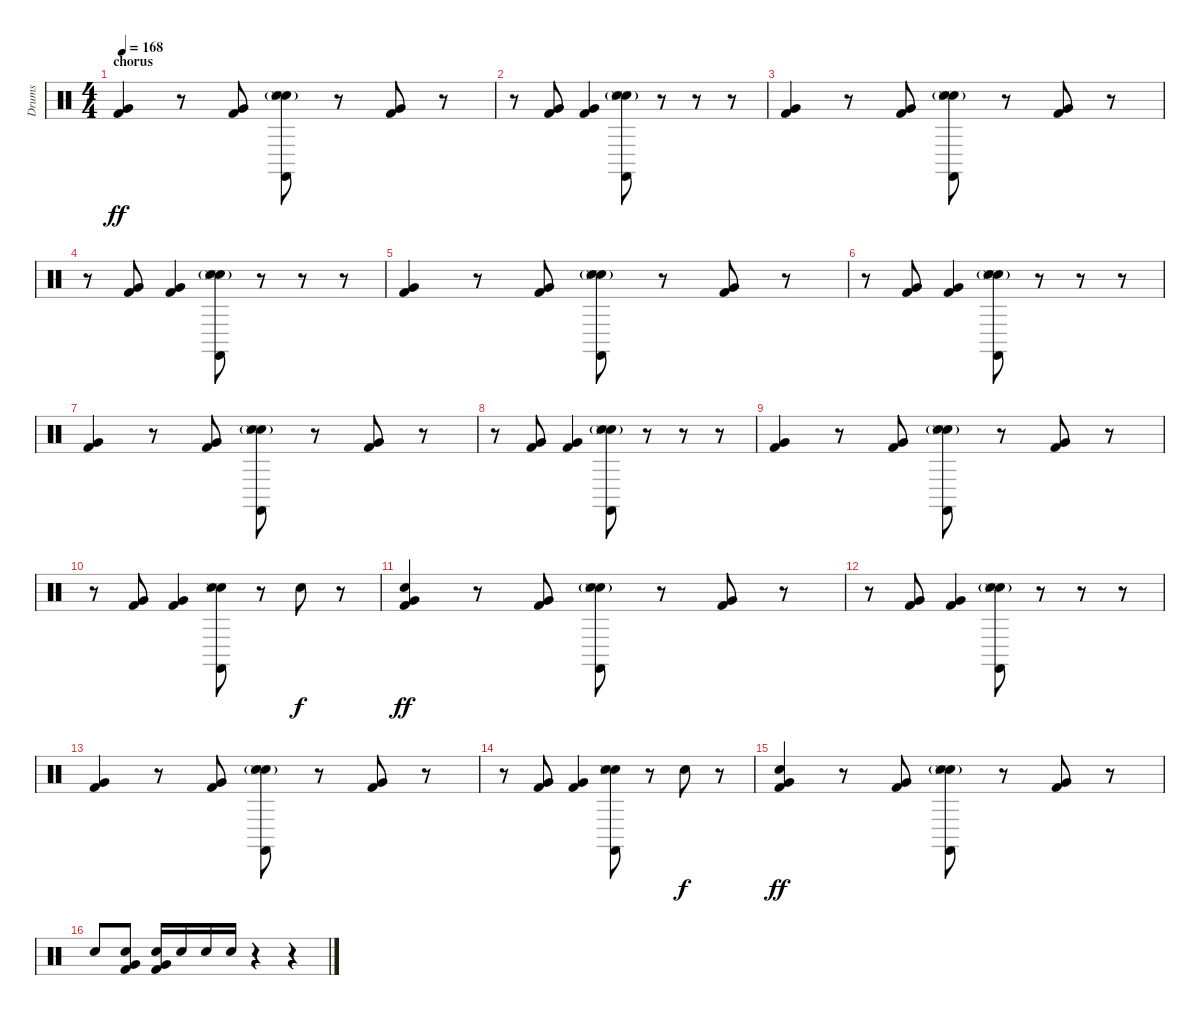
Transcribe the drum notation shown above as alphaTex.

\track ("Drums" "Drums") {instrument percussion}
\staff {score}
\articulation defaults
\ts (4 4)
\section ("" "chorus")
\tempo 168
\clef neutral
\ks c
("Very Low Tom (hit)" "Kick (hit) 2").4{dy ff} r.8 ("Very Low Tom (hit)" "Kick (hit) 2").8 ("Snare (hit) 2" "Hand Clap (hit)"{g} "Castanets (hit)" "Snare (side stick) 3").8 r.8 ("Very Low Tom (hit)" "Kick (hit) 2").8 r.8 |
r.8 ("Very Low Tom (hit)" "Kick (hit) 2").8 ("Very Low Tom (hit)" "Kick (hit) 2").4 ("Snare (hit) 2" "Hand Clap (hit)"{g} "Castanets (hit)" "Snare (side stick) 3").8 r.8 r.8 r.8 |
("Very Low Tom (hit)" "Kick (hit) 2").4 r.8 ("Very Low Tom (hit)" "Kick (hit) 2").8 ("Snare (hit) 2" "Hand Clap (hit)"{g} "Castanets (hit)" "Snare (side stick) 3").8 r.8 ("Very Low Tom (hit)" "Kick (hit) 2").8 r.8 |
r.8 ("Very Low Tom (hit)" "Kick (hit) 2").8 ("Very Low Tom (hit)" "Kick (hit) 2").4 ("Snare (hit) 2" "Hand Clap (hit)"{g} "Castanets (hit)" "Snare (side stick) 3").8 r.8 r.8 r.8 |
("Very Low Tom (hit)" "Kick (hit) 2").4 r.8 ("Very Low Tom (hit)" "Kick (hit) 2").8 ("Snare (hit) 2" "Hand Clap (hit)"{g} "Castanets (hit)" "Snare (side stick) 3").8 r.8 ("Very Low Tom (hit)" "Kick (hit) 2").8 r.8 |
r.8 ("Very Low Tom (hit)" "Kick (hit) 2").8 ("Very Low Tom (hit)" "Kick (hit) 2").4 ("Snare (hit) 2" "Hand Clap (hit)"{g} "Castanets (hit)" "Snare (side stick) 3").8 r.8 r.8 r.8 |
("Very Low Tom (hit)" "Kick (hit) 2").4 r.8 ("Very Low Tom (hit)" "Kick (hit) 2").8 ("Snare (hit) 2" "Hand Clap (hit)"{g} "Castanets (hit)" "Snare (side stick) 3").8 r.8 ("Very Low Tom (hit)" "Kick (hit) 2").8 r.8 |
r.8 ("Very Low Tom (hit)" "Kick (hit) 2").8 ("Very Low Tom (hit)" "Kick (hit) 2").4 ("Snare (hit) 2" "Hand Clap (hit)"{g} "Castanets (hit)" "Snare (side stick) 3").8 r.8 r.8 r.8 |
("Very Low Tom (hit)" "Kick (hit) 2").4 r.8 ("Very Low Tom (hit)" "Kick (hit) 2").8 ("Snare (hit) 2" "Hand Clap (hit)"{g} "Castanets (hit)" "Snare (side stick) 3").8 r.8 ("Very Low Tom (hit)" "Kick (hit) 2").8 r.8 |
r.8 ("Very Low Tom (hit)" "Kick (hit) 2").8 ("Very Low Tom (hit)" "Kick (hit) 2").4 ("Hand Clap (hit)" "Snare (hit) 2" "Castanets (hit)" "Snare (side stick) 3").8 r.8 "Hand Clap (hit)".8{dy f} r.8 |
("Hand Clap (hit)" "Very Low Tom (hit)" "Kick (hit) 2").4{dy ff} r.8 ("Very Low Tom (hit)" "Kick (hit) 2").8 ("Snare (hit) 2" "Hand Clap (hit)"{g} "Castanets (hit)" "Snare (side stick) 3").8 r.8 ("Very Low Tom (hit)" "Kick (hit) 2").8 r.8 |
r.8 ("Very Low Tom (hit)" "Kick (hit) 2").8 ("Very Low Tom (hit)" "Kick (hit) 2").4 ("Snare (hit) 2" "Hand Clap (hit)"{g} "Castanets (hit)" "Snare (side stick) 3").8 r.8 r.8 r.8 |
("Very Low Tom (hit)" "Kick (hit) 2").4 r.8 ("Very Low Tom (hit)" "Kick (hit) 2").8 ("Snare (hit) 2" "Hand Clap (hit)"{g} "Castanets (hit)" "Snare (side stick) 3").8 r.8 ("Very Low Tom (hit)" "Kick (hit) 2").8 r.8 |
r.8 ("Very Low Tom (hit)" "Kick (hit) 2").8 ("Very Low Tom (hit)" "Kick (hit) 2").4 ("Hand Clap (hit)" "Snare (hit) 2" "Castanets (hit)" "Snare (side stick) 3").8 r.8 "Hand Clap (hit)".8{dy f} r.8 |
("Hand Clap (hit)" "Very Low Tom (hit)" "Kick (hit) 2").4{dy ff} r.8 ("Very Low Tom (hit)" "Kick (hit) 2").8 ("Snare (hit) 2" "Hand Clap (hit)"{g} "Castanets (hit)" "Snare (side stick) 3").8 r.8 ("Very Low Tom (hit)" "Kick (hit) 2").8 r.8 |
"Snare (hit) 2".8 ("Snare (hit) 2" "Very Low Tom (hit)" "Kick (hit) 2").8 ("Snare (hit) 2" "Very Low Tom (hit)" "Kick (hit) 2").16 "Snare (hit) 2".16 "Snare (hit) 2".16 "Snare (hit) 2".16 r.4 r.4
